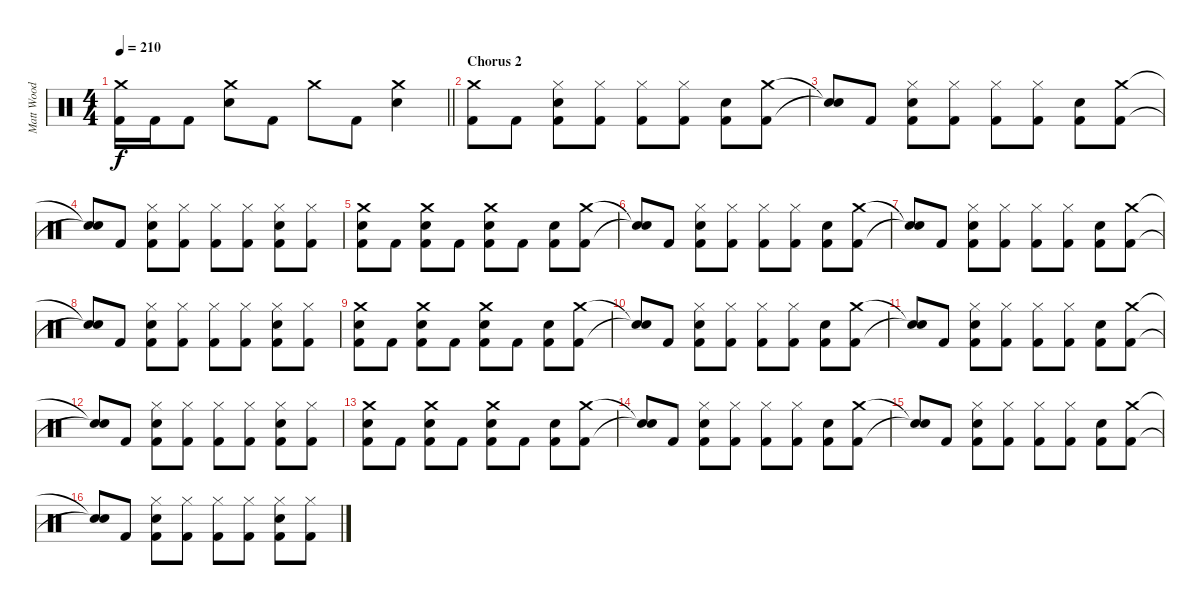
\track ("Matt Wood" "Matt Wood") {instrument percussion}
\staff {score}
\articulation defaults
\ts (4 4)
\tempo 210
\clef neutral
\barLineRight lightlight
\ks c
("Crash medium (hit)" "Kick (hit) 2").16{dy f} "Kick (hit) 2".16 "Kick (hit) 2".8 ("Crash medium (hit)" "Snare (hit) 2").8 "Kick (hit) 2".8 "Crash medium (hit)".8 "Kick (hit) 2".8 ("Crash medium (hit)" "Snare (hit) 2").4 |
\section ("" "Chorus 2")
("Crash medium (hit)" "Kick (hit) 2").8 "Kick (hit) 2".8 ("Hi-Hat (closed)" "Snare (hit) 2" "Kick (hit) 2").8 ("Hi-Hat (closed)" "Kick (hit) 2").8 ("Hi-Hat (closed)" "Kick (hit) 2").8 ("Hi-Hat (closed)" "Kick (hit) 2").8 ("Snare (hit) 2" "Kick (hit) 2").8 ("Crash medium (hit)" "Kick (hit) 2").8 |
("Snare (hit)"{t} "Snare (hit)"{t}).8 "Kick (hit) 2".8 ("Hi-Hat (closed)" "Snare (hit) 2" "Kick (hit) 2").8 ("Hi-Hat (closed)" "Kick (hit) 2").8 ("Hi-Hat (closed)" "Kick (hit) 2").8 ("Hi-Hat (closed)" "Kick (hit) 2").8 ("Snare (hit) 2" "Kick (hit) 2").8 ("Crash medium (hit)" "Kick (hit) 2").8 |
("Snare (hit)"{t} "Snare (hit)"{t}).8 "Kick (hit) 2".8 ("Hi-Hat (closed)" "Snare (hit) 2" "Kick (hit) 2").8 ("Hi-Hat (closed)" "Kick (hit) 2").8 ("Hi-Hat (closed)" "Kick (hit) 2").8 ("Hi-Hat (closed)" "Kick (hit) 2").8 ("Hi-Hat (closed)" "Snare (hit) 2" "Kick (hit) 2").8 ("Hi-Hat (closed)" "Kick (hit) 2").8 |
("Crash medium (hit)" "Snare (hit) 2" "Kick (hit) 2").8 "Kick (hit) 2".8 ("Crash medium (hit)" "Snare (hit) 2" "Kick (hit) 2").8 "Kick (hit) 2".8 ("Crash medium (hit)" "Snare (hit) 2" "Kick (hit) 2").8 "Kick (hit) 2".8 ("Snare (hit) 2" "Kick (hit) 2").8 ("Crash medium (hit)" "Kick (hit) 2").8 |
("Snare (hit)"{t} "Snare (hit)"{t}).8 "Kick (hit) 2".8 ("Hi-Hat (closed)" "Snare (hit) 2" "Kick (hit) 2").8 ("Hi-Hat (closed)" "Kick (hit) 2").8 ("Hi-Hat (closed)" "Kick (hit) 2").8 ("Hi-Hat (closed)" "Kick (hit) 2").8 ("Snare (hit) 2" "Kick (hit) 2").8 ("Crash medium (hit)" "Kick (hit) 2").8 |
("Snare (hit)"{t} "Snare (hit)"{t}).8 "Kick (hit) 2".8 ("Hi-Hat (closed)" "Snare (hit) 2" "Kick (hit) 2").8 ("Hi-Hat (closed)" "Kick (hit) 2").8 ("Hi-Hat (closed)" "Kick (hit) 2").8 ("Hi-Hat (closed)" "Kick (hit) 2").8 ("Snare (hit) 2" "Kick (hit) 2").8 ("Crash medium (hit)" "Kick (hit) 2").8 |
("Snare (hit)"{t} "Snare (hit)"{t}).8 "Kick (hit) 2".8 ("Hi-Hat (closed)" "Snare (hit) 2" "Kick (hit) 2").8 ("Hi-Hat (closed)" "Kick (hit) 2").8 ("Hi-Hat (closed)" "Kick (hit) 2").8 ("Hi-Hat (closed)" "Kick (hit) 2").8 ("Hi-Hat (closed)" "Snare (hit) 2" "Kick (hit) 2").8 ("Hi-Hat (closed)" "Kick (hit) 2").8 |
("Crash medium (hit)" "Snare (hit) 2" "Kick (hit) 2").8 "Kick (hit) 2".8 ("Crash medium (hit)" "Snare (hit) 2" "Kick (hit) 2").8 "Kick (hit) 2".8 ("Crash medium (hit)" "Snare (hit) 2" "Kick (hit) 2").8 "Kick (hit) 2".8 ("Snare (hit) 2" "Kick (hit) 2").8 ("Crash medium (hit)" "Kick (hit) 2").8 |
("Snare (hit)"{t} "Snare (hit)"{t}).8 "Kick (hit) 2".8 ("Hi-Hat (closed)" "Snare (hit) 2" "Kick (hit) 2").8 ("Hi-Hat (closed)" "Kick (hit) 2").8 ("Hi-Hat (closed)" "Kick (hit) 2").8 ("Hi-Hat (closed)" "Kick (hit) 2").8 ("Snare (hit) 2" "Kick (hit) 2").8 ("Crash medium (hit)" "Kick (hit) 2").8 |
("Snare (hit)"{t} "Snare (hit)"{t}).8 "Kick (hit) 2".8 ("Hi-Hat (closed)" "Snare (hit) 2" "Kick (hit) 2").8 ("Hi-Hat (closed)" "Kick (hit) 2").8 ("Hi-Hat (closed)" "Kick (hit) 2").8 ("Hi-Hat (closed)" "Kick (hit) 2").8 ("Snare (hit) 2" "Kick (hit) 2").8 ("Crash medium (hit)" "Kick (hit) 2").8 |
("Snare (hit)"{t} "Snare (hit)"{t}).8 "Kick (hit) 2".8 ("Hi-Hat (closed)" "Snare (hit) 2" "Kick (hit) 2").8 ("Hi-Hat (closed)" "Kick (hit) 2").8 ("Hi-Hat (closed)" "Kick (hit) 2").8 ("Hi-Hat (closed)" "Kick (hit) 2").8 ("Hi-Hat (closed)" "Snare (hit) 2" "Kick (hit) 2").8 ("Hi-Hat (closed)" "Kick (hit) 2").8 |
("Crash medium (hit)" "Snare (hit) 2" "Kick (hit) 2").8 "Kick (hit) 2".8 ("Crash medium (hit)" "Snare (hit) 2" "Kick (hit) 2").8 "Kick (hit) 2".8 ("Crash medium (hit)" "Snare (hit) 2" "Kick (hit) 2").8 "Kick (hit) 2".8 ("Snare (hit) 2" "Kick (hit) 2").8 ("Crash medium (hit)" "Kick (hit) 2").8 |
("Snare (hit)"{t} "Snare (hit)"{t}).8 "Kick (hit) 2".8 ("Hi-Hat (closed)" "Snare (hit) 2" "Kick (hit) 2").8 ("Hi-Hat (closed)" "Kick (hit) 2").8 ("Hi-Hat (closed)" "Kick (hit) 2").8 ("Hi-Hat (closed)" "Kick (hit) 2").8 ("Snare (hit) 2" "Kick (hit) 2").8 ("Crash medium (hit)" "Kick (hit) 2").8 |
("Snare (hit)"{t} "Snare (hit)"{t}).8 "Kick (hit) 2".8 ("Hi-Hat (closed)" "Snare (hit) 2" "Kick (hit) 2").8 ("Hi-Hat (closed)" "Kick (hit) 2").8 ("Hi-Hat (closed)" "Kick (hit) 2").8 ("Hi-Hat (closed)" "Kick (hit) 2").8 ("Snare (hit) 2" "Kick (hit) 2").8 ("Crash medium (hit)" "Kick (hit) 2").8 |
("Snare (hit)"{t} "Snare (hit)"{t}).8 "Kick (hit) 2".8 ("Hi-Hat (closed)" "Snare (hit) 2" "Kick (hit) 2").8 ("Hi-Hat (closed)" "Kick (hit) 2").8 ("Hi-Hat (closed)" "Kick (hit) 2").8 ("Hi-Hat (closed)" "Kick (hit) 2").8 ("Hi-Hat (closed)" "Snare (hit) 2" "Kick (hit) 2").8 ("Hi-Hat (closed)" "Kick (hit) 2").8
